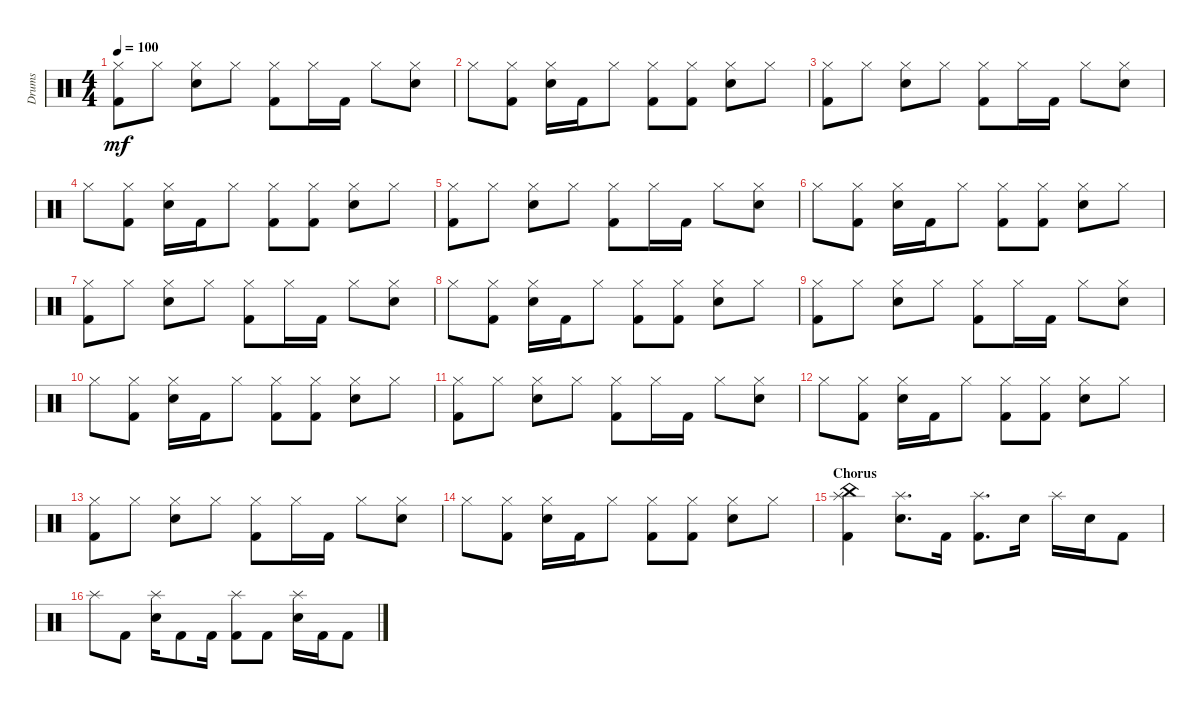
\defaultSystemsLayout 4
\bracketExtendMode groupsimilarinstruments
\otherSystemsTrackNameOrientation horizontal
\track ("Prakarsh" "Drums") {instrument percussion}
\staff {score}
\articulation defaults
\ts (4 4)
\tempo 100
\clef neutral
\ks c
("Hi-Hat (closed)" "Kick (hit) 2").8{dy mf beam Down} "Hi-Hat (closed)".8{beam Down} ("Hi-Hat (closed)" "Snare (hit) 2").8{beam Down} "Hi-Hat (closed)".8{beam Down} ("Hi-Hat (closed)" "Kick (hit) 2").8{beam Down} "Hi-Hat (closed)".16{beam Down} "Kick (hit) 2".16{beam Down} "Hi-Hat (closed)".8{beam Down} ("Hi-Hat (closed)" "Snare (hit) 2").8{beam Down} |
"Hi-Hat (closed)".8{beam Down} ("Hi-Hat (closed)" "Kick (hit) 2").8{beam Down} ("Hi-Hat (closed)" "Snare (hit) 2").16{beam Down} "Kick (hit) 2".16{beam Down} "Hi-Hat (closed)".8{beam Down} ("Hi-Hat (closed)" "Kick (hit) 2").8{beam Down} ("Hi-Hat (closed)" "Kick (hit) 2").8{beam Down} ("Hi-Hat (closed)" "Snare (hit) 2").8{beam Down} "Hi-Hat (closed)".8{beam Down} |
("Hi-Hat (closed)" "Kick (hit) 2").8{beam Down} "Hi-Hat (closed)".8{beam Down} ("Hi-Hat (closed)" "Snare (hit) 2").8{beam Down} "Hi-Hat (closed)".8{beam Down} ("Hi-Hat (closed)" "Kick (hit) 2").8{beam Down} "Hi-Hat (closed)".16{beam Down} "Kick (hit) 2".16{beam Down} "Hi-Hat (closed)".8{beam Down} ("Hi-Hat (closed)" "Snare (hit) 2").8{beam Down} |
"Hi-Hat (closed)".8{beam Down} ("Hi-Hat (closed)" "Kick (hit) 2").8{beam Down} ("Hi-Hat (closed)" "Snare (hit) 2").16{beam Down} "Kick (hit) 2".16{beam Down} "Hi-Hat (closed)".8{beam Down} ("Hi-Hat (closed)" "Kick (hit) 2").8{beam Down} ("Hi-Hat (closed)" "Kick (hit) 2").8{beam Down} ("Hi-Hat (closed)" "Snare (hit) 2").8{beam Down} "Hi-Hat (closed)".8{beam Down} |
("Hi-Hat (closed)" "Kick (hit) 2").8{beam Down} "Hi-Hat (closed)".8{beam Down} ("Hi-Hat (closed)" "Snare (hit) 2").8{beam Down} "Hi-Hat (closed)".8{beam Down} ("Hi-Hat (closed)" "Kick (hit) 2").8{beam Down} "Hi-Hat (closed)".16{beam Down} "Kick (hit) 2".16{beam Down} "Hi-Hat (closed)".8{beam Down} ("Hi-Hat (closed)" "Snare (hit) 2").8{beam Down} |
"Hi-Hat (closed)".8{beam Down} ("Hi-Hat (closed)" "Kick (hit) 2").8{beam Down} ("Hi-Hat (closed)" "Snare (hit) 2").16{beam Down} "Kick (hit) 2".16{beam Down} "Hi-Hat (closed)".8{beam Down} ("Hi-Hat (closed)" "Kick (hit) 2").8{beam Down} ("Hi-Hat (closed)" "Kick (hit) 2").8{beam Down} ("Hi-Hat (closed)" "Snare (hit) 2").8{beam Down} "Hi-Hat (closed)".8{beam Down} |
("Hi-Hat (closed)" "Kick (hit) 2").8{beam Down} "Hi-Hat (closed)".8{beam Down} ("Hi-Hat (closed)" "Snare (hit) 2").8{beam Down} "Hi-Hat (closed)".8{beam Down} ("Hi-Hat (closed)" "Kick (hit) 2").8{beam Down} "Hi-Hat (closed)".16{beam Down} "Kick (hit) 2".16{beam Down} "Hi-Hat (closed)".8{beam Down} ("Hi-Hat (closed)" "Snare (hit) 2").8{beam Down} |
"Hi-Hat (closed)".8{beam Down} ("Hi-Hat (closed)" "Kick (hit) 2").8{beam Down} ("Hi-Hat (closed)" "Snare (hit) 2").16{beam Down} "Kick (hit) 2".16{beam Down} "Hi-Hat (closed)".8{beam Down} ("Hi-Hat (closed)" "Kick (hit) 2").8{beam Down} ("Hi-Hat (closed)" "Kick (hit) 2").8{beam Down} ("Hi-Hat (closed)" "Snare (hit) 2").8{beam Down} "Hi-Hat (closed)".8{beam Down} |
("Hi-Hat (closed)" "Kick (hit) 2").8{beam Down} "Hi-Hat (closed)".8{beam Down} ("Hi-Hat (closed)" "Snare (hit) 2").8{beam Down} "Hi-Hat (closed)".8{beam Down} ("Hi-Hat (closed)" "Kick (hit) 2").8{beam Down} "Hi-Hat (closed)".16{beam Down} "Kick (hit) 2".16{beam Down} "Hi-Hat (closed)".8{beam Down} ("Hi-Hat (closed)" "Snare (hit) 2").8{beam Down} |
"Hi-Hat (closed)".8{beam Down} ("Hi-Hat (closed)" "Kick (hit) 2").8{beam Down} ("Hi-Hat (closed)" "Snare (hit) 2").16{beam Down} "Kick (hit) 2".16{beam Down} "Hi-Hat (closed)".8{beam Down} ("Hi-Hat (closed)" "Kick (hit) 2").8{beam Down} ("Hi-Hat (closed)" "Kick (hit) 2").8{beam Down} ("Hi-Hat (closed)" "Snare (hit) 2").8{beam Down} "Hi-Hat (closed)".8{beam Down} |
("Hi-Hat (closed)" "Kick (hit) 2").8{beam Down} "Hi-Hat (closed)".8{beam Down} ("Hi-Hat (closed)" "Snare (hit) 2").8{beam Down} "Hi-Hat (closed)".8{beam Down} ("Hi-Hat (closed)" "Kick (hit) 2").8{beam Down} "Hi-Hat (closed)".16{beam Down} "Kick (hit) 2".16{beam Down} "Hi-Hat (closed)".8{beam Down} ("Hi-Hat (closed)" "Snare (hit) 2").8{beam Down} |
"Hi-Hat (closed)".8{beam Down} ("Hi-Hat (closed)" "Kick (hit) 2").8{beam Down} ("Hi-Hat (closed)" "Snare (hit) 2").16{beam Down} "Kick (hit) 2".16{beam Down} "Hi-Hat (closed)".8{beam Down} ("Hi-Hat (closed)" "Kick (hit) 2").8{beam Down} ("Hi-Hat (closed)" "Kick (hit) 2").8{beam Down} ("Hi-Hat (closed)" "Snare (hit) 2").8{beam Down} "Hi-Hat (closed)".8{beam Down} |
("Hi-Hat (closed)" "Kick (hit) 2").8{beam Down} "Hi-Hat (closed)".8{beam Down} ("Hi-Hat (closed)" "Snare (hit) 2").8{beam Down} "Hi-Hat (closed)".8{beam Down} ("Hi-Hat (closed)" "Kick (hit) 2").8{beam Down} "Hi-Hat (closed)".16{beam Down} "Kick (hit) 2".16{beam Down} "Hi-Hat (closed)".8{beam Down} ("Hi-Hat (closed)" "Snare (hit) 2").8{beam Down} |
"Hi-Hat (closed)".8{beam Down} ("Hi-Hat (closed)" "Kick (hit) 2").8{beam Down} ("Hi-Hat (closed)" "Snare (hit) 2").16{beam Down} "Kick (hit) 2".16{beam Down} "Hi-Hat (closed)".8{beam Down} ("Hi-Hat (closed)" "Kick (hit) 2").8{beam Down} ("Hi-Hat (closed)" "Kick (hit) 2").8{beam Down} ("Hi-Hat (closed)" "Snare (hit) 2").8{beam Down} "Hi-Hat (closed)".8{beam Down} |
\section ("" "Chorus")
("Kick (hit) 2" "China (hit)" "Splash (hit)").4{beam Down} ("Snare (hit) 2" "Splash (hit)").8{d beam Down} "Kick (hit) 2".16{beam Down} ("Kick (hit) 2" "Splash (hit)").8{d beam Down} "Snare (hit) 2".16{beam Down} "Splash (hit)".16{beam Down} "Snare (hit) 2".16{beam Down} "Kick (hit) 2".8{beam Down} |
"Splash (hit)".8{beam Down} "Kick (hit) 2".8{beam Down} ("Snare (hit) 2" "Splash (hit)").16{beam Down} "Kick (hit) 2".8{beam Down} "Kick (hit) 2".16{beam Down} ("Kick (hit) 2" "Splash (hit)").8{beam Down} "Kick (hit) 2".8{beam Down} ("Snare (hit) 2" "Splash (hit)").16{beam Down} "Kick (hit) 2".16{beam Down} "Kick (hit) 2".8{beam Down}
